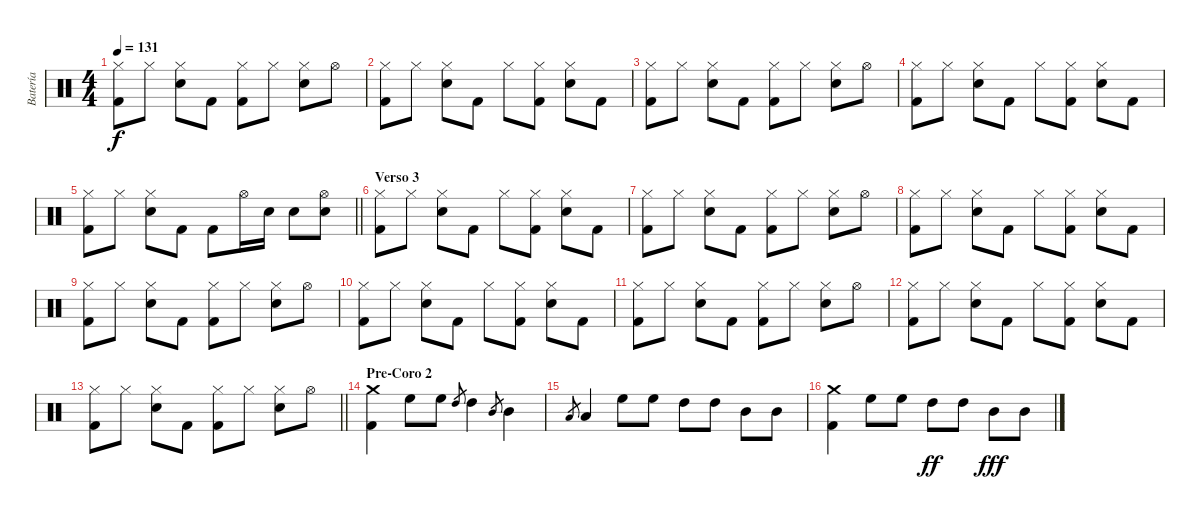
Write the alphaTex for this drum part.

\track ("Batería" "Batería") {instrument percussion}
\staff {score}
\articulation defaults
\ts (4 4)
\tempo 131
\clef neutral
\ks aminor
("Hi-Hat (closed)" "Kick (hit) 2").8{dy f} "Hi-Hat (closed)".8 ("Hi-Hat (closed)" "Electric Snare (hit)").8 "Kick (hit) 2".8 ("Hi-Hat (closed)" "Kick (hit) 2").8 "Hi-Hat (closed)".8 ("Hi-Hat (closed)" "Electric Snare (hit)").8 "Hi-Hat (open)".8 |
("Hi-Hat (closed)" "Kick (hit) 2").8 "Hi-Hat (closed)".8 ("Hi-Hat (closed)" "Electric Snare (hit)").8 "Kick (hit) 2".8 "Hi-Hat (closed)".8 ("Hi-Hat (closed)" "Kick (hit) 2").8 ("Hi-Hat (closed)" "Electric Snare (hit)").8 "Kick (hit) 2".8 |
("Hi-Hat (closed)" "Kick (hit) 2").8 "Hi-Hat (closed)".8 ("Hi-Hat (closed)" "Electric Snare (hit)").8 "Kick (hit) 2".8 ("Hi-Hat (closed)" "Kick (hit) 2").8 "Hi-Hat (closed)".8 ("Hi-Hat (closed)" "Electric Snare (hit)").8 "Hi-Hat (open)".8 |
("Hi-Hat (closed)" "Kick (hit) 2").8 "Hi-Hat (closed)".8 ("Hi-Hat (closed)" "Electric Snare (hit)").8 "Kick (hit) 2".8 "Hi-Hat (closed)".8 ("Hi-Hat (closed)" "Kick (hit) 2").8 ("Hi-Hat (closed)" "Electric Snare (hit)").8 "Kick (hit) 2".8 |
\barLineRight lightlight
("Hi-Hat (closed)" "Kick (hit) 2").8 "Hi-Hat (closed)".8 ("Hi-Hat (closed)" "Electric Snare (hit)").8 "Kick (hit) 2".8 "Kick (hit) 2".8 "Hi-Hat (open)".16 "Electric Snare (hit)".16 "Electric Snare (hit)".8 ("Hi-Hat (open)" "Electric Snare (hit)").8 |
\section ("" "Verso 3")
("Hi-Hat (closed)" "Kick (hit) 2").8 "Hi-Hat (closed)".8 ("Hi-Hat (closed)" "Electric Snare (hit)").8 "Kick (hit) 2".8 "Hi-Hat (closed)".8 ("Hi-Hat (closed)" "Kick (hit) 2").8 ("Hi-Hat (closed)" "Electric Snare (hit)").8 "Kick (hit) 2".8 |
("Hi-Hat (closed)" "Kick (hit) 2").8 "Hi-Hat (closed)".8 ("Hi-Hat (closed)" "Electric Snare (hit)").8 "Kick (hit) 2".8 ("Hi-Hat (closed)" "Kick (hit) 2").8 "Hi-Hat (closed)".8 ("Hi-Hat (closed)" "Electric Snare (hit)").8 "Hi-Hat (open)".8 |
("Hi-Hat (closed)" "Kick (hit) 2").8 "Hi-Hat (closed)".8 ("Hi-Hat (closed)" "Electric Snare (hit)").8 "Kick (hit) 2".8 "Hi-Hat (closed)".8 ("Hi-Hat (closed)" "Kick (hit) 2").8 ("Hi-Hat (closed)" "Electric Snare (hit)").8 "Kick (hit) 2".8 |
("Hi-Hat (closed)" "Kick (hit) 2").8 "Hi-Hat (closed)".8 ("Hi-Hat (closed)" "Electric Snare (hit)").8 "Kick (hit) 2".8 ("Hi-Hat (closed)" "Kick (hit) 2").8 "Hi-Hat (closed)".8 ("Hi-Hat (closed)" "Electric Snare (hit)").8 "Hi-Hat (open)".8 |
("Hi-Hat (closed)" "Kick (hit) 2").8 "Hi-Hat (closed)".8 ("Hi-Hat (closed)" "Electric Snare (hit)").8 "Kick (hit) 2".8 "Hi-Hat (closed)".8 ("Hi-Hat (closed)" "Kick (hit) 2").8 ("Hi-Hat (closed)" "Electric Snare (hit)").8 "Kick (hit) 2".8 |
("Hi-Hat (closed)" "Kick (hit) 2").8 "Hi-Hat (closed)".8 ("Hi-Hat (closed)" "Electric Snare (hit)").8 "Kick (hit) 2".8 ("Hi-Hat (closed)" "Kick (hit) 2").8 "Hi-Hat (closed)".8 ("Hi-Hat (closed)" "Electric Snare (hit)").8 "Hi-Hat (open)".8 |
("Hi-Hat (closed)" "Kick (hit) 2").8 "Hi-Hat (closed)".8 ("Hi-Hat (closed)" "Electric Snare (hit)").8 "Kick (hit) 2".8 "Hi-Hat (closed)".8 ("Hi-Hat (closed)" "Kick (hit) 2").8 ("Hi-Hat (closed)" "Electric Snare (hit)").8 "Kick (hit) 2".8 |
\barLineRight lightlight
("Hi-Hat (closed)" "Kick (hit) 2").8 "Hi-Hat (closed)".8 ("Hi-Hat (closed)" "Electric Snare (hit)").8 "Kick (hit) 2".8 ("Hi-Hat (closed)" "Kick (hit) 2").8 "Hi-Hat (closed)".8 ("Hi-Hat (closed)" "Electric Snare (hit)").8 "Hi-Hat (open)".8 |
\section ("" "Pre-Coro 2")
("Crash medium (hit)" "Kick (hit) 2").4 "High Floor Tom (hit)".8 "High Floor Tom (hit)".8 "High Tom (hit)".8{gr} "High Tom (hit)".4 "Mid Tom (hit)".8{gr} "Mid Tom (hit)".4 |
"Low Tom (hit)".8{gr} "Low Tom (hit)".4 "High Floor Tom (hit)".8 "High Floor Tom (hit)".8 "High Tom (hit)".8 "High Tom (hit)".8 "Mid Tom (hit)".8 "Mid Tom (hit)".8 |
("Crash medium (hit)" "Kick (hit) 2").4 "High Floor Tom (hit)".8 "High Floor Tom (hit)".8 "High Tom (hit)".8{dy ff} "High Tom (hit)".8 "Mid Tom (hit)".8{dy fff} "Mid Tom (hit)".8
